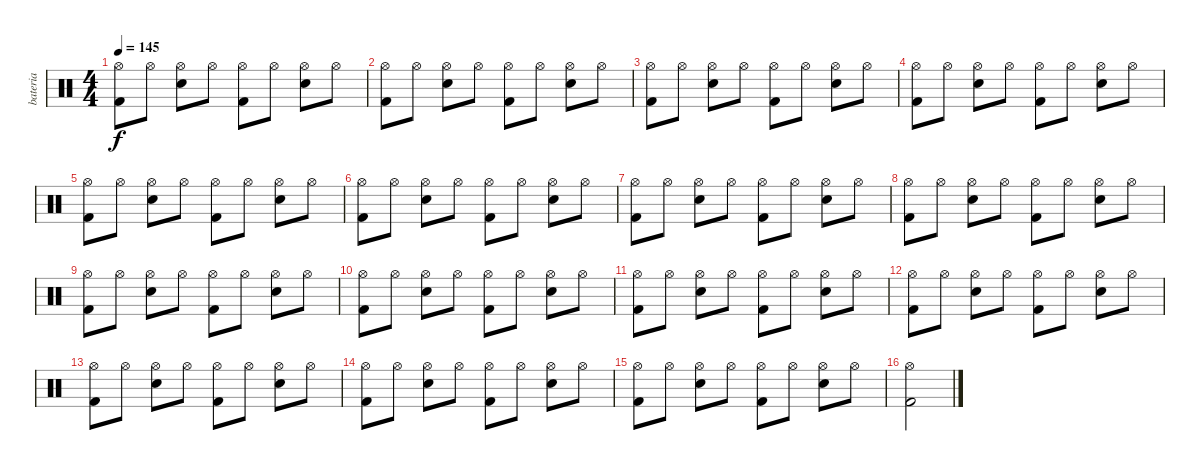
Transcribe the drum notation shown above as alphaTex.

\track ("bateria" "bateria") {instrument percussion}
\staff {score}
\articulation defaults
\ts (4 4)
\tempo 145
\clef neutral
\ks c
("Hi-Hat (open)" "Kick (hit) 2").8{dy f} "Hi-Hat (open)".8 ("Hi-Hat (open)" "Electric Snare (hit)").8 "Hi-Hat (open)".8 ("Hi-Hat (open)" "Kick (hit) 2").8 "Hi-Hat (open)".8 ("Hi-Hat (open)" "Electric Snare (hit)").8 "Hi-Hat (open)".8 |
("Hi-Hat (open)" "Kick (hit) 2").8 "Hi-Hat (open)".8 ("Hi-Hat (open)" "Electric Snare (hit)").8 "Hi-Hat (open)".8 ("Hi-Hat (open)" "Kick (hit) 2").8 "Hi-Hat (open)".8 ("Hi-Hat (open)" "Electric Snare (hit)").8 "Hi-Hat (open)".8 |
("Hi-Hat (open)" "Kick (hit) 2").8 "Hi-Hat (open)".8 ("Hi-Hat (open)" "Electric Snare (hit)").8 "Hi-Hat (open)".8 ("Hi-Hat (open)" "Kick (hit) 2").8 "Hi-Hat (open)".8 ("Hi-Hat (open)" "Electric Snare (hit)").8 "Hi-Hat (open)".8 |
("Hi-Hat (open)" "Kick (hit) 2").8 "Hi-Hat (open)".8 ("Hi-Hat (open)" "Electric Snare (hit)").8 "Hi-Hat (open)".8 ("Hi-Hat (open)" "Kick (hit) 2").8 "Hi-Hat (open)".8 ("Hi-Hat (open)" "Electric Snare (hit)").8 "Hi-Hat (open)".8 |
("Hi-Hat (open)" "Kick (hit) 2").8 "Hi-Hat (open)".8 ("Hi-Hat (open)" "Electric Snare (hit)").8 "Hi-Hat (open)".8 ("Hi-Hat (open)" "Kick (hit) 2").8 "Hi-Hat (open)".8 ("Hi-Hat (open)" "Electric Snare (hit)").8 "Hi-Hat (open)".8 |
("Hi-Hat (open)" "Kick (hit) 2").8 "Hi-Hat (open)".8 ("Hi-Hat (open)" "Electric Snare (hit)").8 "Hi-Hat (open)".8 ("Hi-Hat (open)" "Kick (hit) 2").8 "Hi-Hat (open)".8 ("Hi-Hat (open)" "Electric Snare (hit)").8 "Hi-Hat (open)".8 |
("Hi-Hat (open)" "Kick (hit) 2").8 "Hi-Hat (open)".8 ("Hi-Hat (open)" "Electric Snare (hit)").8 "Hi-Hat (open)".8 ("Hi-Hat (open)" "Kick (hit) 2").8 "Hi-Hat (open)".8 ("Hi-Hat (open)" "Electric Snare (hit)").8 "Hi-Hat (open)".8 |
("Hi-Hat (open)" "Kick (hit) 2").8 "Hi-Hat (open)".8 ("Hi-Hat (open)" "Electric Snare (hit)").8 "Hi-Hat (open)".8 ("Hi-Hat (open)" "Kick (hit) 2").8 "Hi-Hat (open)".8 ("Hi-Hat (open)" "Electric Snare (hit)").8 "Hi-Hat (open)".8 |
("Hi-Hat (open)" "Kick (hit) 2").8 "Hi-Hat (open)".8 ("Hi-Hat (open)" "Electric Snare (hit)").8 "Hi-Hat (open)".8 ("Hi-Hat (open)" "Kick (hit) 2").8 "Hi-Hat (open)".8 ("Hi-Hat (open)" "Electric Snare (hit)").8 "Hi-Hat (open)".8 |
("Hi-Hat (open)" "Kick (hit) 2").8 "Hi-Hat (open)".8 ("Hi-Hat (open)" "Electric Snare (hit)").8 "Hi-Hat (open)".8 ("Hi-Hat (open)" "Kick (hit) 2").8 "Hi-Hat (open)".8 ("Hi-Hat (open)" "Electric Snare (hit)").8 "Hi-Hat (open)".8 |
("Hi-Hat (open)" "Kick (hit) 2").8 "Hi-Hat (open)".8 ("Hi-Hat (open)" "Electric Snare (hit)").8 "Hi-Hat (open)".8 ("Hi-Hat (open)" "Kick (hit) 2").8 "Hi-Hat (open)".8 ("Hi-Hat (open)" "Electric Snare (hit)").8 "Hi-Hat (open)".8 |
("Hi-Hat (open)" "Kick (hit) 2").8 "Hi-Hat (open)".8 ("Hi-Hat (open)" "Electric Snare (hit)").8 "Hi-Hat (open)".8 ("Hi-Hat (open)" "Kick (hit) 2").8 "Hi-Hat (open)".8 ("Hi-Hat (open)" "Electric Snare (hit)").8 "Hi-Hat (open)".8 |
("Hi-Hat (open)" "Kick (hit) 2").8 "Hi-Hat (open)".8 ("Hi-Hat (open)" "Electric Snare (hit)").8 "Hi-Hat (open)".8 ("Hi-Hat (open)" "Kick (hit) 2").8 "Hi-Hat (open)".8 ("Hi-Hat (open)" "Electric Snare (hit)").8 "Hi-Hat (open)".8 |
("Hi-Hat (open)" "Kick (hit) 2").8 "Hi-Hat (open)".8 ("Hi-Hat (open)" "Electric Snare (hit)").8 "Hi-Hat (open)".8 ("Hi-Hat (open)" "Kick (hit) 2").8 "Hi-Hat (open)".8 ("Hi-Hat (open)" "Electric Snare (hit)").8 "Hi-Hat (open)".8 |
("Hi-Hat (open)" "Kick (hit) 2").8 "Hi-Hat (open)".8 ("Hi-Hat (open)" "Electric Snare (hit)").8 "Hi-Hat (open)".8 ("Hi-Hat (open)" "Kick (hit) 2").8 "Hi-Hat (open)".8 ("Hi-Hat (open)" "Electric Snare (hit)").8 "Hi-Hat (open)".8 |
("Hi-Hat (open)" "Kick (hit) 2").2
